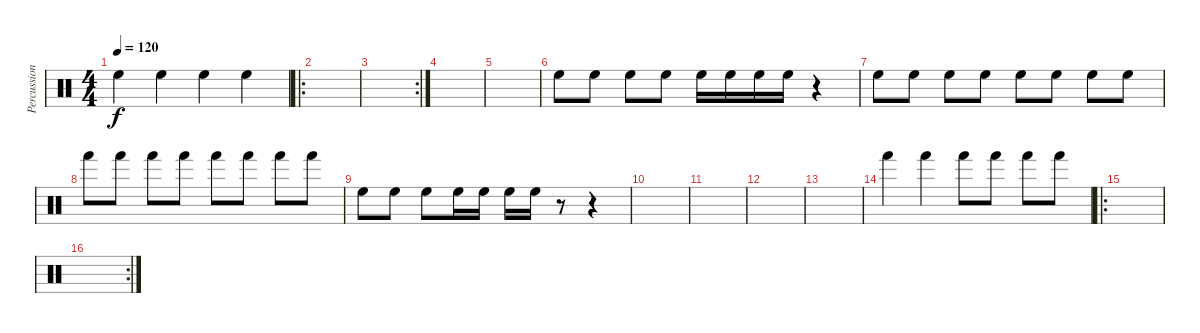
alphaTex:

\track ("Percussion" "Percussion") {instrument percussion}
\staff {score}
\articulation defaults
\ts (4 4)
\tempo 120
\clef neutral
\ks c "High Floor Tom (hit)".4{dy f} "High Floor Tom (hit)".4 "High Floor Tom (hit)".4 "High Floor Tom (hit)".4
|
\ro
|
\rc 2
|
|
|
"High Floor Tom (hit)".8 "High Floor Tom (hit)".8 "High Floor Tom (hit)".8 "High Floor Tom (hit)".8 "High Floor Tom (hit)".16 "High Floor Tom (hit)".16 "High Floor Tom (hit)".16 "High Floor Tom (hit)".16 r.4 |
"High Floor Tom (hit)".8 "High Floor Tom (hit)".8 "High Floor Tom (hit)".8 "High Floor Tom (hit)".8 "High Floor Tom (hit)".8 "High Floor Tom (hit)".8 "High Floor Tom (hit)".8 "High Floor Tom (hit)".8 |
"Hand (hit)".8 "Hand (hit)".8 "Hand (hit)".8 "Hand (hit)".8 "Hand (hit)".8 "Hand (hit)".8 "Hand (hit)".8 "Hand (hit)".8 |
"High Floor Tom (hit)".8 "High Floor Tom (hit)".8 "High Floor Tom (hit)".8 "High Floor Tom (hit)".16 "High Floor Tom (hit)".16 "High Floor Tom (hit)".16 "High Floor Tom (hit)".16 r.8 r.4 |
|
|
|
|
"Hand (hit)".4 "Hand (hit)".4 "Hand (hit)".8 "Hand (hit)".8 "Hand (hit)".8 "Hand (hit)".8 |
\ro
|
\rc 2
